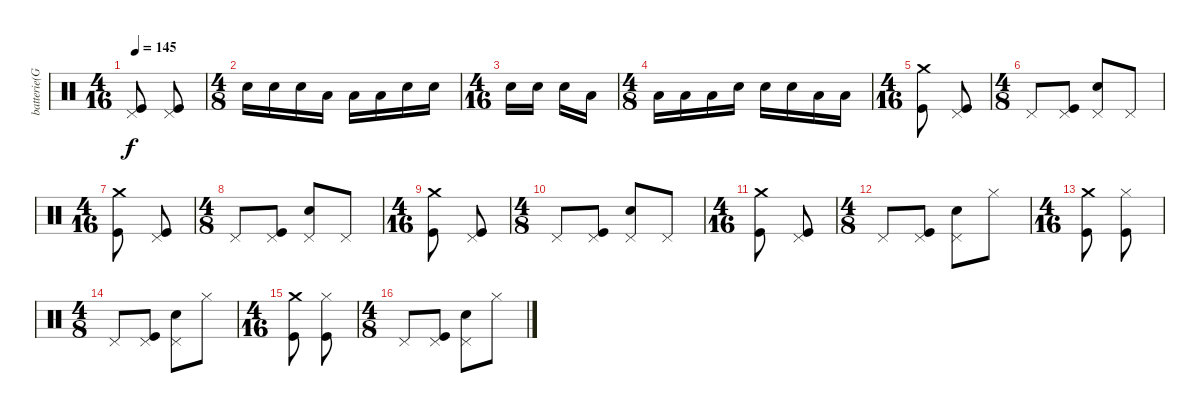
\track ("batterie(Granberg)" "batterie(G") {instrument percussion}
\staff {score}
\articulation defaults
\ts (4 16)
\tempo 145
\clef neutral
\ks c
("Pedal Hi-Hat (hit)" "Kick (hit)").8{dy f} ("Pedal Hi-Hat (hit)" "Kick (hit)").8 |
\ts (4 8)
"Snare (hit) 2".16 "Snare (hit) 2".16 "Snare (hit) 2".16 "Low Tom (hit)".16 "Low Tom (hit)".16 "Low Tom (hit)".16 "Snare (hit) 2".16 "Snare (hit) 2".16 |
\ts (4 16)
"Snare (hit) 2".16 "Snare (hit) 2".16 "Snare (hit) 2".16 "Low Tom (hit)".16 |
\ts (4 8)
"Low Tom (hit)".16 "Low Tom (hit)".16 "Low Tom (hit)".16 "Snare (hit) 2".16 "Snare (hit) 2".16 "Snare (hit) 2".16 "Low Tom (hit)".16 "Low Tom (hit)".16 |
\ts (4 16)
("Crash medium (hit)" "Kick (hit)").8 ("Pedal Hi-Hat (hit)" "Kick (hit)").8 |
\ts (4 8)
"Pedal Hi-Hat (hit)".8 ("Pedal Hi-Hat (hit)" "Kick (hit)").8 ("Pedal Hi-Hat (hit)" "Snare (hit) 2").8 "Pedal Hi-Hat (hit)".8 |
\ts (4 16)
("Crash medium (hit)" "Kick (hit)").8 ("Pedal Hi-Hat (hit)" "Kick (hit)").8 |
\ts (4 8)
"Pedal Hi-Hat (hit)".8 ("Pedal Hi-Hat (hit)" "Kick (hit)").8 ("Pedal Hi-Hat (hit)" "Snare (hit) 2").8 "Pedal Hi-Hat (hit)".8 |
\ts (4 16)
("Crash medium (hit)" "Kick (hit)").8 ("Pedal Hi-Hat (hit)" "Kick (hit)").8 |
\ts (4 8)
"Pedal Hi-Hat (hit)".8 ("Pedal Hi-Hat (hit)" "Kick (hit)").8 ("Pedal Hi-Hat (hit)" "Snare (hit) 2").8 "Pedal Hi-Hat (hit)".8 |
\ts (4 16)
("Crash medium (hit)" "Kick (hit)").8 ("Pedal Hi-Hat (hit)" "Kick (hit)").8 |
\ts (4 8)
"Pedal Hi-Hat (hit)".8 ("Pedal Hi-Hat (hit)" "Kick (hit)").8 ("Pedal Hi-Hat (hit)" "Snare (hit) 2").8 "Hi-Hat (closed)".8 |
\ts (4 16)
("Crash medium (hit)" "Kick (hit)").8 ("Hi-Hat (closed)" "Kick (hit)").8 |
\ts (4 8)
"Pedal Hi-Hat (hit)".8 ("Pedal Hi-Hat (hit)" "Kick (hit)").8 ("Pedal Hi-Hat (hit)" "Snare (hit) 2").8 "Hi-Hat (closed)".8 |
\ts (4 16)
("Crash medium (hit)" "Kick (hit)").8 ("Hi-Hat (closed)" "Kick (hit)").8 |
\ts (4 8)
"Pedal Hi-Hat (hit)".8 ("Pedal Hi-Hat (hit)" "Kick (hit)").8 ("Pedal Hi-Hat (hit)" "Snare (hit) 2").8 "Hi-Hat (closed)".8
